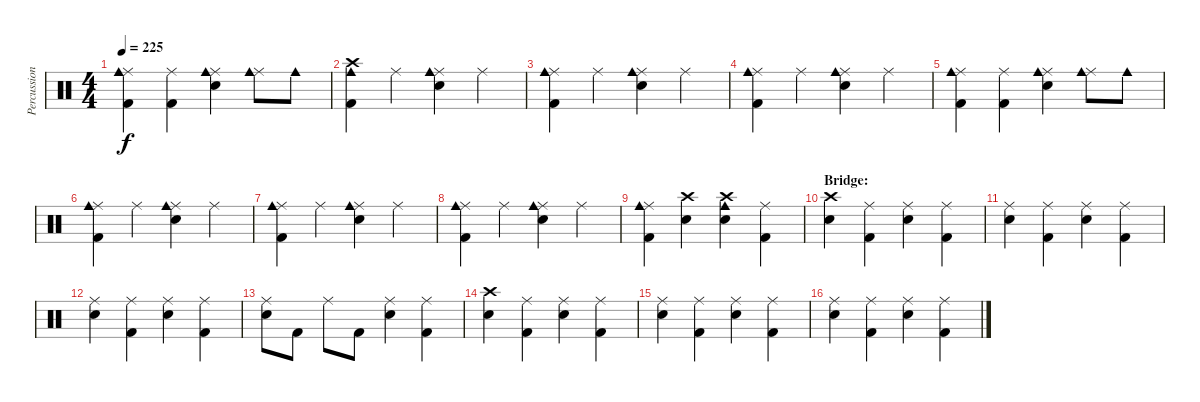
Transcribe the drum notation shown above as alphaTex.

\track ("Percussion" "Percussion") {instrument percussion}
\staff {score}
\articulation defaults
\ts (4 4)
\tempo 225
\clef neutral
\ks c
("Ride (middle)" "Cowbell medium (hit)" "Kick (hit) 2").4{dy f} ("Ride (middle)" "Kick (hit) 2").4 ("Ride (middle)" "Cowbell medium (hit)" "Electric Snare (hit)").4 ("Ride (middle)" "Cowbell medium (hit)").8 "Cowbell medium (hit)".8 |
("Crash high (hit)" "Cowbell medium (hit)" "Kick (hit) 2").4 "Ride (middle)".4 ("Ride (middle)" "Cowbell medium (hit)" "Electric Snare (hit)").4 "Ride (middle)".4 |
("Ride (middle)" "Cowbell medium (hit)" "Kick (hit) 2").4 "Ride (middle)".4 ("Ride (middle)" "Cowbell medium (hit)" "Electric Snare (hit)").4 "Ride (middle)".4 |
("Ride (middle)" "Cowbell medium (hit)" "Kick (hit) 2").4 "Ride (middle)".4 ("Ride (middle)" "Cowbell medium (hit)" "Electric Snare (hit)").4 "Ride (middle)".4 |
("Ride (middle)" "Cowbell medium (hit)" "Kick (hit) 2").4 ("Ride (middle)" "Kick (hit) 2").4 ("Ride (middle)" "Cowbell medium (hit)" "Electric Snare (hit)").4 ("Ride (middle)" "Cowbell medium (hit)").8 "Cowbell medium (hit)".8 |
("Ride (middle)" "Cowbell medium (hit)" "Kick (hit) 2").4 "Ride (middle)".4 ("Ride (middle)" "Cowbell medium (hit)" "Electric Snare (hit)").4 "Ride (middle)".4 |
("Ride (middle)" "Cowbell medium (hit)" "Kick (hit) 2").4 "Ride (middle)".4 ("Ride (middle)" "Cowbell medium (hit)" "Electric Snare (hit)").4 "Ride (middle)".4 |
("Ride (middle)" "Cowbell medium (hit)" "Kick (hit) 2").4 "Ride (middle)".4 ("Ride (middle)" "Cowbell medium (hit)" "Electric Snare (hit)").4 "Ride (middle)".4 |
("Ride (middle)" "Cowbell medium (hit)" "Kick (hit) 2").4 ("Crash high (hit)" "Electric Snare (hit)").4 ("Crash high (hit)" "Cowbell medium (hit)" "Electric Snare (hit)").4 ("Ride (middle)" "Kick (hit) 2").4 |
\section ("" "Bridge:")
("Crash high (hit)" "Electric Snare (hit)").4 ("Ride (middle)" "Kick (hit) 2").4 ("Ride (middle)" "Electric Snare (hit)").4 ("Ride (middle)" "Kick (hit) 2").4 |
("Ride (middle)" "Electric Snare (hit)").4 ("Ride (middle)" "Kick (hit) 2").4 ("Ride (middle)" "Electric Snare (hit)").4 ("Ride (middle)" "Kick (hit) 2").4 |
("Ride (middle)" "Electric Snare (hit)").4 ("Ride (middle)" "Kick (hit) 2").4 ("Ride (middle)" "Electric Snare (hit)").4 ("Ride (middle)" "Kick (hit) 2").4 |
("Ride (middle)" "Electric Snare (hit)").8 "Kick (hit) 2".8 "Ride (middle)".8 "Kick (hit) 2".8 ("Ride (middle)" "Electric Snare (hit)").4 ("Ride (middle)" "Kick (hit) 2").4 |
("Crash high (hit)" "Electric Snare (hit)").4 ("Ride (middle)" "Kick (hit) 2").4 ("Ride (middle)" "Electric Snare (hit)").4 ("Ride (middle)" "Kick (hit) 2").4 |
("Ride (middle)" "Electric Snare (hit)").4 ("Ride (middle)" "Kick (hit) 2").4 ("Ride (middle)" "Electric Snare (hit)").4 ("Ride (middle)" "Kick (hit) 2").4 |
("Ride (middle)" "Electric Snare (hit)").4 ("Ride (middle)" "Kick (hit) 2").4 ("Ride (middle)" "Electric Snare (hit)").4 ("Ride (middle)" "Kick (hit) 2").4
